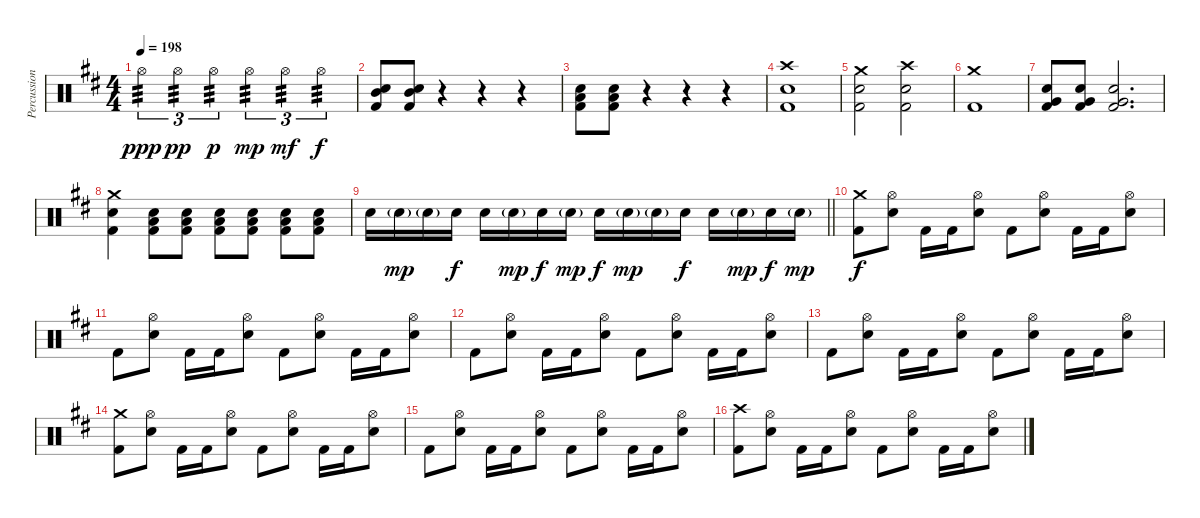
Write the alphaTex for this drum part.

\track ("Percussion" "Percussion") {instrument percussion}
\staff {score}
\articulation defaults
\ts (4 4)
\tempo 198
\clef neutral
\ks bminor "Hi-Hat (open)".4{tu (3 2) tp 3 dy ppp} "Hi-Hat (open)".4{tu (3 2) tp 3 dy pp} "Hi-Hat (open)".4{tu (3 2) tp 3 dy p} "Hi-Hat (open)".4{tu (3 2) tp 3 dy mp} "Hi-Hat (open)".4{tu (3 2) tp 3 dy mf} "Hi-Hat (open)".4{tu (3 2) tp 3 dy f}
|
("Mid Tom (hit)" "Snare (hit) 2" "Kick (hit) 2").8 ("Mid Tom (hit)" "Snare (hit) 2" "Kick (hit) 2").8 r.4 r.4 r.4 |
("Low Tom (hit)" "Snare (hit) 2" "Kick (hit) 2").8 ("Low Tom (hit)" "Snare (hit) 2" "Kick (hit) 2").8 r.4 r.4 r.4 |
("Crash high (hit)" "Snare (hit) 2" "Kick (hit) 2").1 |
("Crash medium (hit)" "Snare (hit) 2" "Kick (hit) 2").2 ("Crash high (hit)" "Snare (hit) 2" "Kick (hit) 2").2 |
("Crash medium (hit)" "Kick (hit) 2").1 |
("Snare (hit) 2" "Very Low Tom (hit)" "Kick (hit) 2").8 ("Snare (hit) 2" "Very Low Tom (hit)" "Kick (hit) 2").8 ("Snare (hit) 2" "Very Low Tom (hit)" "Kick (hit) 2").2{d} |
("Crash medium (hit)" "Snare (hit) 2" "Kick (hit) 2").4 ("Snare (hit) 2" "Low Tom (hit)" "Kick (hit) 2").8 ("Snare (hit) 2" "Low Tom (hit)" "Kick (hit) 2").8 ("Snare (hit) 2" "Low Tom (hit)" "Kick (hit) 2").8 ("Snare (hit) 2" "Low Tom (hit)" "Kick (hit) 2").8 ("Snare (hit) 2" "Low Tom (hit)" "Kick (hit) 2").8 ("Snare (hit) 2" "Low Tom (hit)" "Kick (hit) 2").8 |
\barLineRight lightlight "Snare (hit) 2".16 "Snare (hit) 2"{g}.16{dy mp} "Snare (hit) 2"{g}.16 "Snare (hit) 2".16{dy f} "Snare (hit) 2".16 "Snare (hit) 2"{g}.16{dy mp} "Snare (hit) 2".16{dy f} "Snare (hit) 2"{g}.16{dy mp} "Snare (hit) 2".16{dy f} "Snare (hit) 2"{g}.16{dy mp} "Snare (hit) 2"{g}.16 "Snare (hit) 2".16{dy f} "Snare (hit) 2".16 "Snare (hit) 2"{g}.16{dy mp} "Snare (hit) 2".16{dy f} "Snare (hit) 2"{g}.16{dy mp}
|
("Crash medium (hit)" "Kick (hit) 2").8{dy f} ("Hi-Hat (open)" "Snare (hit) 2").8 "Kick (hit) 2".16 "Kick (hit) 2".16 ("Hi-Hat (open)" "Snare (hit) 2").8 "Kick (hit) 2".8 ("Hi-Hat (open)" "Snare (hit) 2").8 "Kick (hit) 2".16 "Kick (hit) 2".16 ("Hi-Hat (open)" "Snare (hit) 2").8 |
"Kick (hit) 2".8 ("Hi-Hat (open)" "Snare (hit) 2").8 "Kick (hit) 2".16 "Kick (hit) 2".16 ("Hi-Hat (open)" "Snare (hit) 2").8 "Kick (hit) 2".8 ("Hi-Hat (open)" "Snare (hit) 2").8 "Kick (hit) 2".16 "Kick (hit) 2".16 ("Hi-Hat (open)" "Snare (hit) 2").8 |
"Kick (hit) 2".8 ("Hi-Hat (open)" "Snare (hit) 2").8 "Kick (hit) 2".16 "Kick (hit) 2".16 ("Hi-Hat (open)" "Snare (hit) 2").8 "Kick (hit) 2".8 ("Hi-Hat (open)" "Snare (hit) 2").8 "Kick (hit) 2".16 "Kick (hit) 2".16 ("Hi-Hat (open)" "Snare (hit) 2").8 |
"Kick (hit) 2".8 ("Hi-Hat (open)" "Snare (hit) 2").8 "Kick (hit) 2".16 "Kick (hit) 2".16 ("Hi-Hat (open)" "Snare (hit) 2").8 "Kick (hit) 2".8 ("Hi-Hat (open)" "Snare (hit) 2").8 "Kick (hit) 2".16 "Kick (hit) 2".16 ("Hi-Hat (open)" "Snare (hit) 2").8 |
("Crash medium (hit)" "Kick (hit) 2").8 ("Hi-Hat (open)" "Snare (hit) 2").8 "Kick (hit) 2".16 "Kick (hit) 2".16 ("Hi-Hat (open)" "Snare (hit) 2").8 "Kick (hit) 2".8 ("Hi-Hat (open)" "Snare (hit) 2").8 "Kick (hit) 2".16 "Kick (hit) 2".16 ("Hi-Hat (open)" "Snare (hit) 2").8 |
"Kick (hit) 2".8 ("Hi-Hat (open)" "Snare (hit) 2").8 "Kick (hit) 2".16 "Kick (hit) 2".16 ("Hi-Hat (open)" "Snare (hit) 2").8 "Kick (hit) 2".8 ("Hi-Hat (open)" "Snare (hit) 2").8 "Kick (hit) 2".16 "Kick (hit) 2".16 ("Hi-Hat (open)" "Snare (hit) 2").8 |
("Crash high (hit)" "Kick (hit) 2").8 ("Hi-Hat (open)" "Snare (hit) 2").8 "Kick (hit) 2".16 "Kick (hit) 2".16 ("Hi-Hat (open)" "Snare (hit) 2").8 "Kick (hit) 2".8 ("Hi-Hat (open)" "Snare (hit) 2").8 "Kick (hit) 2".16 "Kick (hit) 2".16 ("Hi-Hat (open)" "Snare (hit) 2").8
